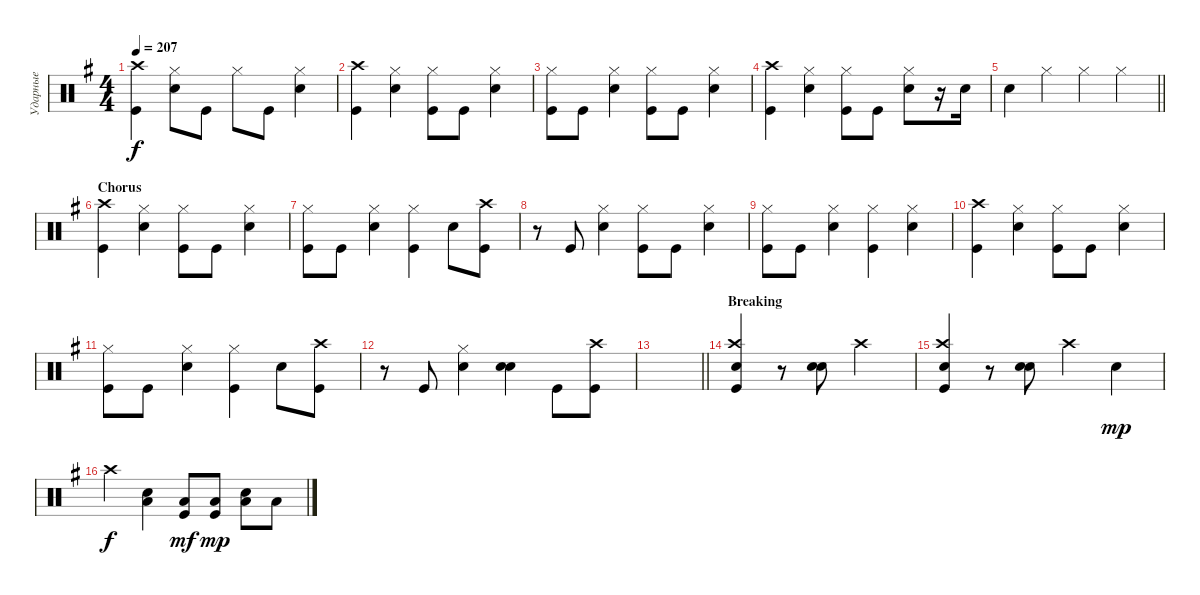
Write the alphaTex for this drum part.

\track ("Ударные" "Ударные") {instrument percussion}
\staff {score}
\articulation defaults
\ts (4 4)
\tempo 207
\clef neutral
\ks eminor
("Kick (hit)" "Crash high (hit)").4{dy f} ("Snare (hit) 2" "Hi-Hat (closed)").8 "Kick (hit)".8 "Hi-Hat (closed)".8 "Kick (hit)".8 ("Snare (hit) 2" "Hi-Hat (closed)").4 |
("Kick (hit)" "Crash high (hit)").4 ("Snare (hit) 2" "Hi-Hat (closed)").4 ("Kick (hit)" "Hi-Hat (closed)").8 "Kick (hit)".8 ("Snare (hit) 2" "Hi-Hat (closed)").4 |
("Kick (hit)" "Hi-Hat (closed)").8 "Kick (hit)".8 ("Snare (hit) 2" "Hi-Hat (closed)").4 ("Kick (hit)" "Hi-Hat (closed)").8 "Kick (hit)".8 ("Snare (hit) 2" "Hi-Hat (closed)").4 |
("Kick (hit)" "Crash high (hit)").4 ("Snare (hit) 2" "Hi-Hat (closed)").4 ("Kick (hit)" "Hi-Hat (closed)").8 "Kick (hit)".8 ("Snare (hit) 2" "Hi-Hat (closed)").8 r.16 "Snare (hit) 2".16 |
\barLineRight lightlight "Snare (hit) 2".4 "Hi-Hat (closed)".4 "Hi-Hat (closed)".4 "Hi-Hat (closed)".4
|
\section ("" "Chorus")
("Kick (hit)" "Crash high (hit)").4 ("Snare (hit) 2" "Hi-Hat (closed)").4 ("Kick (hit)" "Hi-Hat (closed)").8 "Kick (hit)".8 ("Snare (hit) 2" "Hi-Hat (closed)").4 |
("Kick (hit)" "Hi-Hat (closed)").8 "Kick (hit)".8 ("Snare (hit) 2" "Hi-Hat (closed)").4 ("Kick (hit)" "Hi-Hat (closed)").4 "Snare (hit) 2".8 ("Crash high (hit)" "Kick (hit)").8 |
r.8 "Kick (hit)".8 ("Snare (hit) 2" "Hi-Hat (closed)").4 ("Kick (hit)" "Hi-Hat (closed)").8 "Kick (hit)".8 ("Snare (hit) 2" "Hi-Hat (closed)").4 |
("Kick (hit)" "Hi-Hat (closed)").8 "Kick (hit)".8 ("Snare (hit) 2" "Hi-Hat (closed)").4 ("Kick (hit)" "Hi-Hat (closed)").4 ("Snare (hit) 2" "Hi-Hat (closed)").4 |
("Kick (hit)" "Crash high (hit)").4 ("Snare (hit) 2" "Hi-Hat (closed)").4 ("Kick (hit)" "Hi-Hat (closed)").8 "Kick (hit)".8 ("Snare (hit) 2" "Hi-Hat (closed)").4 |
("Kick (hit)" "Hi-Hat (closed)").8 "Kick (hit)".8 ("Snare (hit) 2" "Hi-Hat (closed)").4 ("Kick (hit)" "Hi-Hat (closed)").4 "Snare (hit) 2".8 ("Crash high (hit)" "Kick (hit)").8 |
r.8 "Kick (hit)".8 ("Snare (hit) 2" "Hi-Hat (closed)").4 ("Snare (hit) 2" "Snare (hit) 2").4{bd 240} "Kick (hit)".8 ("Kick (hit)" "Crash high (hit)").8 |
\barLineRight lightlight
|
\section ("" "Breaking")
("Kick (hit)" "Crash high (hit)" "Snare (hit) 2").4 r.8 ("Snare (hit) 2" "Snare (hit) 2").8{bd 480} "Crash high (hit)".2 |
("Kick (hit)" "Crash high (hit)" "Snare (hit) 2").4 r.8 ("Snare (hit) 2" "Snare (hit) 2").8{bd 480} "Crash high (hit)".4 "Snare (hit) 2".4{dy mp} |
"Crash high (hit)".4{dy f} ("Snare (hit) 2" "Low Floor Tom (hit)").4{bd 480} ("Kick (hit)" "Low Floor Tom (hit)").8{dy mf} ("Kick (hit)" "Low Floor Tom (hit)").8{dy mp} ("Low Floor Tom (hit)" "Snare (hit) 2").8{bd 480} "Low Floor Tom (hit)".8
